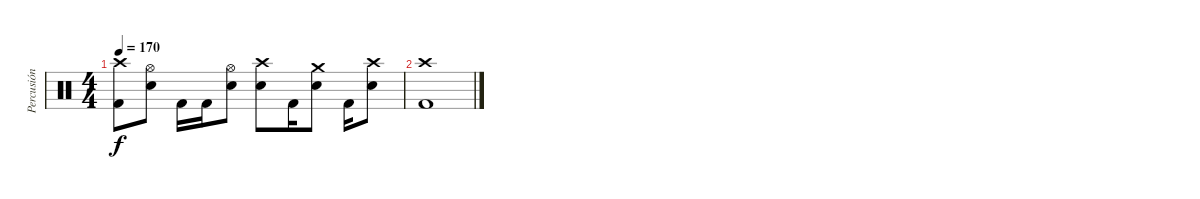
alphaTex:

\track ("Percusión" "Percusión") {instrument percussion}
\staff {score}
\articulation defaults
\ts (4 4)
\tempo 170
\clef neutral
\ks c
("Crash high (hit)" "Kick (hit) 2").8{dy f} ("Hi-Hat (open)" "Electric Snare (hit)").8 "Kick (hit) 2".16 "Kick (hit) 2".16 ("Hi-Hat (open)" "Electric Snare (hit)").8 ("Crash high (hit)" "Electric Snare (hit)").8 "Kick (hit) 2".16 ("Crash medium (hit)" "Electric Snare (hit)").8 "Kick (hit) 2".16 ("Crash high (hit)" "Electric Snare (hit)").8 |
("Crash high (hit)" "Kick (hit) 2").1
